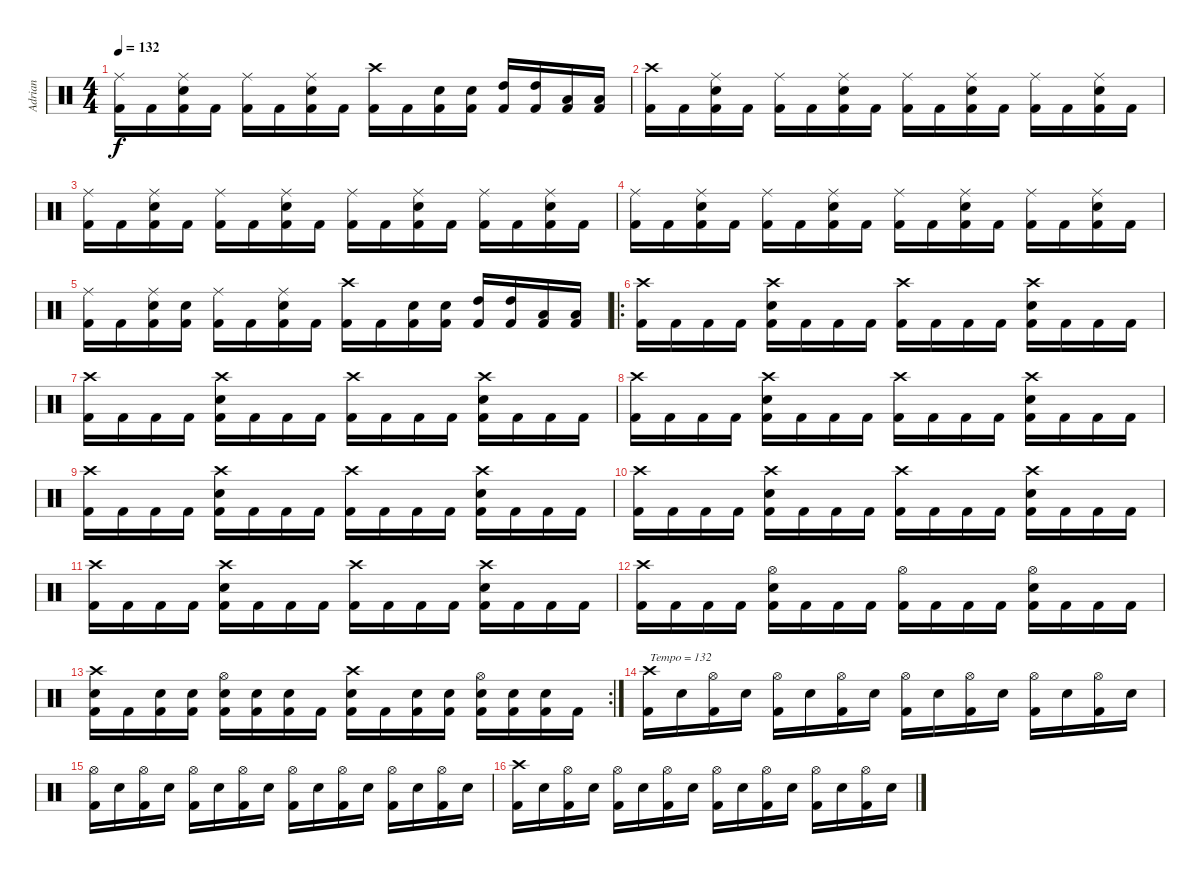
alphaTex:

\track ("Adrian" "Adrian") {instrument percussion}
\staff {score}
\articulation defaults
\ts (4 4)
\tempo 132
\clef neutral
\ks c
("Kick (hit) 2" "Ride (middle)").16{dy f} "Kick (hit) 2".16 ("Kick (hit) 2" "Snare (hit) 2" "Ride (middle)").16 "Kick (hit) 2".16 ("Kick (hit) 2" "Ride (middle)").16 "Kick (hit) 2".16 ("Kick (hit) 2" "Snare (hit) 2" "Ride (middle)").16 "Kick (hit) 2".16 ("Kick (hit) 2" "Crash high (hit)").16 "Kick (hit) 2".16 ("Kick (hit) 2" "Snare (hit) 2").16 ("Kick (hit) 2" "Snare (hit) 2").16 ("Kick (hit) 2" "High Tom (hit)").16 ("Kick (hit) 2" "High Tom (hit)").16 ("Kick (hit) 2" "Low Tom (hit)").16 ("Kick (hit) 2" "Low Tom (hit)").16 |
("Kick (hit) 2" "Crash high (hit)").16 "Kick (hit) 2".16 ("Kick (hit) 2" "Snare (hit) 2" "Ride (middle)").16 "Kick (hit) 2".16 ("Kick (hit) 2" "Ride (middle)").16 "Kick (hit) 2".16 ("Kick (hit) 2" "Snare (hit) 2" "Ride (middle)").16 "Kick (hit) 2".16 ("Kick (hit) 2" "Ride (middle)").16 "Kick (hit) 2".16 ("Kick (hit) 2" "Snare (hit) 2" "Ride (middle)").16 "Kick (hit) 2".16 ("Kick (hit) 2" "Ride (middle)").16 "Kick (hit) 2".16 ("Kick (hit) 2" "Snare (hit) 2" "Ride (middle)").16 "Kick (hit) 2".16 |
("Kick (hit) 2" "Ride (middle)").16 "Kick (hit) 2".16 ("Kick (hit) 2" "Snare (hit) 2" "Ride (middle)").16 "Kick (hit) 2".16 ("Kick (hit) 2" "Ride (middle)").16 "Kick (hit) 2".16 ("Kick (hit) 2" "Snare (hit) 2" "Ride (middle)").16 "Kick (hit) 2".16 ("Kick (hit) 2" "Ride (middle)").16 "Kick (hit) 2".16 ("Kick (hit) 2" "Snare (hit) 2" "Ride (middle)").16 "Kick (hit) 2".16 ("Kick (hit) 2" "Ride (middle)").16 "Kick (hit) 2".16 ("Kick (hit) 2" "Snare (hit) 2" "Ride (middle)").16 "Kick (hit) 2".16 |
("Kick (hit) 2" "Ride (middle)").16 "Kick (hit) 2".16 ("Kick (hit) 2" "Snare (hit) 2" "Ride (middle)").16 "Kick (hit) 2".16 ("Kick (hit) 2" "Ride (middle)").16 "Kick (hit) 2".16 ("Kick (hit) 2" "Snare (hit) 2" "Ride (middle)").16 "Kick (hit) 2".16 ("Kick (hit) 2" "Ride (middle)").16 "Kick (hit) 2".16 ("Kick (hit) 2" "Snare (hit) 2" "Ride (middle)").16 "Kick (hit) 2".16 ("Kick (hit) 2" "Ride (middle)").16 "Kick (hit) 2".16 ("Kick (hit) 2" "Snare (hit) 2" "Ride (middle)").16 "Kick (hit) 2".16 |
("Kick (hit) 2" "Ride (middle)").16 "Kick (hit) 2".16 ("Kick (hit) 2" "Snare (hit) 2" "Ride (middle)").16 ("Kick (hit) 2" "Snare (hit) 2").16 ("Kick (hit) 2" "Ride (middle)").16 "Kick (hit) 2".16 ("Kick (hit) 2" "Snare (hit) 2" "Ride (middle)").16 "Kick (hit) 2".16 ("Kick (hit) 2" "Crash high (hit)").16 "Kick (hit) 2".16 ("Kick (hit) 2" "Snare (hit) 2").16 ("Kick (hit) 2" "Snare (hit) 2").16 ("Kick (hit) 2" "High Tom (hit)").16 ("Kick (hit) 2" "High Tom (hit)").16 ("Kick (hit) 2" "Low Tom (hit)").16 ("Kick (hit) 2" "Low Tom (hit)").16 |
\ro
("Kick (hit) 2" "Crash high (hit)").16 "Kick (hit) 2".16 "Kick (hit) 2".16 "Kick (hit) 2".16 ("Kick (hit) 2" "Snare (hit) 2" "Crash high (hit)").16 "Kick (hit) 2".16 "Kick (hit) 2".16 "Kick (hit) 2".16 ("Kick (hit) 2" "Crash high (hit)").16 "Kick (hit) 2".16 "Kick (hit) 2".16 "Kick (hit) 2".16 ("Kick (hit) 2" "Snare (hit) 2" "Crash high (hit)").16 "Kick (hit) 2".16 "Kick (hit) 2".16 "Kick (hit) 2".16 |
("Kick (hit) 2" "Crash high (hit)").16 "Kick (hit) 2".16 "Kick (hit) 2".16 "Kick (hit) 2".16 ("Kick (hit) 2" "Snare (hit) 2" "Crash high (hit)").16 "Kick (hit) 2".16 "Kick (hit) 2".16 "Kick (hit) 2".16 ("Kick (hit) 2" "Crash high (hit)").16 "Kick (hit) 2".16 "Kick (hit) 2".16 "Kick (hit) 2".16 ("Kick (hit) 2" "Snare (hit) 2" "Crash high (hit)").16 "Kick (hit) 2".16 "Kick (hit) 2".16 "Kick (hit) 2".16 |
("Kick (hit) 2" "Crash high (hit)").16 "Kick (hit) 2".16 "Kick (hit) 2".16 "Kick (hit) 2".16 ("Kick (hit) 2" "Snare (hit) 2" "Crash high (hit)").16 "Kick (hit) 2".16 "Kick (hit) 2".16 "Kick (hit) 2".16 ("Kick (hit) 2" "Crash high (hit)").16 "Kick (hit) 2".16 "Kick (hit) 2".16 "Kick (hit) 2".16 ("Kick (hit) 2" "Snare (hit) 2" "Crash high (hit)").16 "Kick (hit) 2".16 "Kick (hit) 2".16 "Kick (hit) 2".16 |
("Kick (hit) 2" "Crash high (hit)").16 "Kick (hit) 2".16 "Kick (hit) 2".16 "Kick (hit) 2".16 ("Kick (hit) 2" "Snare (hit) 2" "Crash high (hit)").16 "Kick (hit) 2".16 "Kick (hit) 2".16 "Kick (hit) 2".16 ("Kick (hit) 2" "Crash high (hit)").16 "Kick (hit) 2".16 "Kick (hit) 2".16 "Kick (hit) 2".16 ("Kick (hit) 2" "Snare (hit) 2" "Crash high (hit)").16 "Kick (hit) 2".16 "Kick (hit) 2".16 "Kick (hit) 2".16 |
("Kick (hit) 2" "Crash high (hit)").16 "Kick (hit) 2".16 "Kick (hit) 2".16 "Kick (hit) 2".16 ("Kick (hit) 2" "Snare (hit) 2" "Crash high (hit)").16 "Kick (hit) 2".16 "Kick (hit) 2".16 "Kick (hit) 2".16 ("Kick (hit) 2" "Crash high (hit)").16 "Kick (hit) 2".16 "Kick (hit) 2".16 "Kick (hit) 2".16 ("Kick (hit) 2" "Snare (hit) 2" "Crash high (hit)").16 "Kick (hit) 2".16 "Kick (hit) 2".16 "Kick (hit) 2".16 |
("Kick (hit) 2" "Crash high (hit)").16 "Kick (hit) 2".16 "Kick (hit) 2".16 "Kick (hit) 2".16 ("Kick (hit) 2" "Snare (hit) 2" "Crash high (hit)").16 "Kick (hit) 2".16 "Kick (hit) 2".16 "Kick (hit) 2".16 ("Kick (hit) 2" "Crash high (hit)").16 "Kick (hit) 2".16 "Kick (hit) 2".16 "Kick (hit) 2".16 ("Kick (hit) 2" "Snare (hit) 2" "Crash high (hit)").16 "Kick (hit) 2".16 "Kick (hit) 2".16 "Kick (hit) 2".16 |
("Kick (hit) 2" "Crash high (hit)").16 "Kick (hit) 2".16 "Kick (hit) 2".16 "Kick (hit) 2".16 ("Kick (hit) 2" "Snare (hit) 2" "Hi-Hat (open)").16 "Kick (hit) 2".16 "Kick (hit) 2".16 "Kick (hit) 2".16 ("Kick (hit) 2" "Hi-Hat (open)").16 "Kick (hit) 2".16 "Kick (hit) 2".16 "Kick (hit) 2".16 ("Kick (hit) 2" "Snare (hit) 2" "Hi-Hat (open)").16 "Kick (hit) 2".16 "Kick (hit) 2".16 "Kick (hit) 2".16 |
\rc 2
("Kick (hit) 2" "Snare (hit) 2" "Crash high (hit)").16 "Kick (hit) 2".16 ("Kick (hit) 2" "Snare (hit) 2").16 ("Kick (hit) 2" "Snare (hit) 2").16 ("Kick (hit) 2" "Snare (hit) 2" "Hi-Hat (open)").16 ("Kick (hit) 2" "Snare (hit) 2").16 ("Kick (hit) 2" "Snare (hit) 2").16 "Kick (hit) 2".16 ("Kick (hit) 2" "Snare (hit) 2" "Crash high (hit)").16 "Kick (hit) 2".16 ("Kick (hit) 2" "Snare (hit) 2").16 ("Kick (hit) 2" "Snare (hit) 2").16 ("Kick (hit) 2" "Snare (hit) 2" "Hi-Hat (open)").16 ("Kick (hit) 2" "Snare (hit) 2").16 ("Kick (hit) 2" "Snare (hit) 2").16 "Kick (hit) 2".16 |
("Kick (hit) 2" "Crash high (hit)").16{txt "Tempo = 132"} "Snare (hit) 2".16 ("Kick (hit) 2" "Hi-Hat (open)").16 "Snare (hit) 2".16 ("Kick (hit) 2" "Hi-Hat (open)").16 "Snare (hit) 2".16 ("Kick (hit) 2" "Hi-Hat (open)").16 "Snare (hit) 2".16 ("Kick (hit) 2" "Hi-Hat (open)").16 "Snare (hit) 2".16 ("Kick (hit) 2" "Hi-Hat (open)").16 "Snare (hit) 2".16 ("Kick (hit) 2" "Hi-Hat (open)").16 "Snare (hit) 2".16 ("Kick (hit) 2" "Hi-Hat (open)").16 "Snare (hit) 2".16 |
("Kick (hit) 2" "Hi-Hat (open)").16 "Snare (hit) 2".16 ("Kick (hit) 2" "Hi-Hat (open)").16 "Snare (hit) 2".16 ("Kick (hit) 2" "Hi-Hat (open)").16 "Snare (hit) 2".16 ("Kick (hit) 2" "Hi-Hat (open)").16 "Snare (hit) 2".16 ("Kick (hit) 2" "Hi-Hat (open)").16 "Snare (hit) 2".16 ("Kick (hit) 2" "Hi-Hat (open)").16 "Snare (hit) 2".16 ("Kick (hit) 2" "Hi-Hat (open)").16 "Snare (hit) 2".16 ("Kick (hit) 2" "Hi-Hat (open)").16 "Snare (hit) 2".16 |
("Kick (hit) 2" "Crash high (hit)").16 "Snare (hit) 2".16 ("Kick (hit) 2" "Hi-Hat (open)").16 "Snare (hit) 2".16 ("Kick (hit) 2" "Hi-Hat (open)").16 "Snare (hit) 2".16 ("Kick (hit) 2" "Hi-Hat (open)").16 "Snare (hit) 2".16 ("Kick (hit) 2" "Hi-Hat (open)").16 "Snare (hit) 2".16 ("Kick (hit) 2" "Hi-Hat (open)").16 "Snare (hit) 2".16 ("Kick (hit) 2" "Hi-Hat (open)").16 "Snare (hit) 2".16 ("Kick (hit) 2" "Hi-Hat (open)").16 "Snare (hit) 2".16
